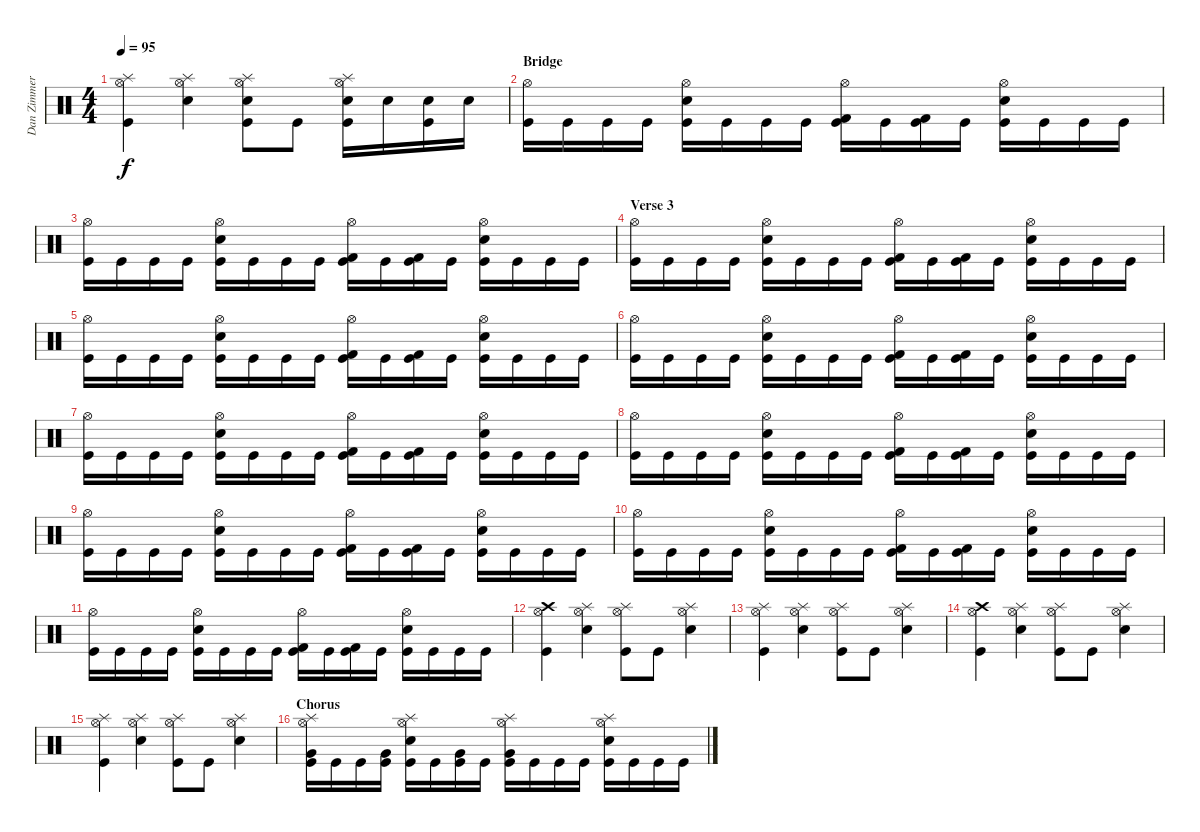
\track ("Dan Zimmermann [drums]" "Dan Zimmer") {instrument percussion}
\staff {score}
\articulation defaults
\ts (4 4)
\tempo 95
\clef neutral
\ks c
("Hi-Hat (open)" "Splash (hit)" "Kick (hit)").4{dy f} ("Hi-Hat (open)" "Splash (hit)" "Snare (hit) 2").4 ("Hi-Hat (open)" "Splash (hit)" "Snare (hit) 2" "Kick (hit)").8 "Kick (hit)".8 ("Hi-Hat (open)" "Splash (hit)" "Snare (hit) 2" "Kick (hit)").16 "Snare (hit) 2".16 ("Snare (hit) 2" "Kick (hit)").16 "Snare (hit) 2".16 |
\section ("" "Bridge")
("Hi-Hat (open)" "Kick (hit)").16 "Kick (hit)".16 "Kick (hit)".16 "Kick (hit)".16 ("Hi-Hat (open)" "Snare (hit) 2" "Kick (hit)").16 "Kick (hit)".16 "Kick (hit)".16 "Kick (hit)".16 ("Hi-Hat (open)" "Kick (hit) 2" "Kick (hit)").16 "Kick (hit)".16 ("Kick (hit) 2" "Kick (hit)").16 "Kick (hit)".16 ("Hi-Hat (open)" "Snare (hit) 2" "Kick (hit)").16 "Kick (hit)".16 "Kick (hit)".16 "Kick (hit)".16 |
("Hi-Hat (open)" "Kick (hit)").16 "Kick (hit)".16 "Kick (hit)".16 "Kick (hit)".16 ("Hi-Hat (open)" "Snare (hit) 2" "Kick (hit)").16 "Kick (hit)".16 "Kick (hit)".16 "Kick (hit)".16 ("Hi-Hat (open)" "Kick (hit) 2" "Kick (hit)").16 "Kick (hit)".16 ("Kick (hit) 2" "Kick (hit)").16 "Kick (hit)".16 ("Hi-Hat (open)" "Snare (hit) 2" "Kick (hit)").16 "Kick (hit)".16 "Kick (hit)".16 "Kick (hit)".16 |
\section ("" "Verse 3")
("Hi-Hat (open)" "Kick (hit)").16 "Kick (hit)".16 "Kick (hit)".16 "Kick (hit)".16 ("Hi-Hat (open)" "Snare (hit) 2" "Kick (hit)").16 "Kick (hit)".16 "Kick (hit)".16 "Kick (hit)".16 ("Hi-Hat (open)" "Kick (hit) 2" "Kick (hit)").16 "Kick (hit)".16 ("Kick (hit) 2" "Kick (hit)").16 "Kick (hit)".16 ("Hi-Hat (open)" "Snare (hit) 2" "Kick (hit)").16 "Kick (hit)".16 "Kick (hit)".16 "Kick (hit)".16 |
("Hi-Hat (open)" "Kick (hit)").16 "Kick (hit)".16 "Kick (hit)".16 "Kick (hit)".16 ("Hi-Hat (open)" "Snare (hit) 2" "Kick (hit)").16 "Kick (hit)".16 "Kick (hit)".16 "Kick (hit)".16 ("Hi-Hat (open)" "Kick (hit) 2" "Kick (hit)").16 "Kick (hit)".16 ("Kick (hit) 2" "Kick (hit)").16 "Kick (hit)".16 ("Hi-Hat (open)" "Snare (hit) 2" "Kick (hit)").16 "Kick (hit)".16 "Kick (hit)".16 "Kick (hit)".16 |
("Hi-Hat (open)" "Kick (hit)").16 "Kick (hit)".16 "Kick (hit)".16 "Kick (hit)".16 ("Hi-Hat (open)" "Snare (hit) 2" "Kick (hit)").16 "Kick (hit)".16 "Kick (hit)".16 "Kick (hit)".16 ("Hi-Hat (open)" "Kick (hit) 2" "Kick (hit)").16 "Kick (hit)".16 ("Kick (hit) 2" "Kick (hit)").16 "Kick (hit)".16 ("Hi-Hat (open)" "Snare (hit) 2" "Kick (hit)").16 "Kick (hit)".16 "Kick (hit)".16 "Kick (hit)".16 |
("Hi-Hat (open)" "Kick (hit)").16 "Kick (hit)".16 "Kick (hit)".16 "Kick (hit)".16 ("Hi-Hat (open)" "Snare (hit) 2" "Kick (hit)").16 "Kick (hit)".16 "Kick (hit)".16 "Kick (hit)".16 ("Hi-Hat (open)" "Kick (hit) 2" "Kick (hit)").16 "Kick (hit)".16 ("Kick (hit) 2" "Kick (hit)").16 "Kick (hit)".16 ("Hi-Hat (open)" "Snare (hit) 2" "Kick (hit)").16 "Kick (hit)".16 "Kick (hit)".16 "Kick (hit)".16 |
("Hi-Hat (open)" "Kick (hit)").16 "Kick (hit)".16 "Kick (hit)".16 "Kick (hit)".16 ("Hi-Hat (open)" "Snare (hit) 2" "Kick (hit)").16 "Kick (hit)".16 "Kick (hit)".16 "Kick (hit)".16 ("Hi-Hat (open)" "Kick (hit) 2" "Kick (hit)").16 "Kick (hit)".16 ("Kick (hit) 2" "Kick (hit)").16 "Kick (hit)".16 ("Hi-Hat (open)" "Snare (hit) 2" "Kick (hit)").16 "Kick (hit)".16 "Kick (hit)".16 "Kick (hit)".16 |
("Hi-Hat (open)" "Kick (hit)").16 "Kick (hit)".16 "Kick (hit)".16 "Kick (hit)".16 ("Hi-Hat (open)" "Snare (hit) 2" "Kick (hit)").16 "Kick (hit)".16 "Kick (hit)".16 "Kick (hit)".16 ("Hi-Hat (open)" "Kick (hit) 2" "Kick (hit)").16 "Kick (hit)".16 ("Kick (hit) 2" "Kick (hit)").16 "Kick (hit)".16 ("Hi-Hat (open)" "Snare (hit) 2" "Kick (hit)").16 "Kick (hit)".16 "Kick (hit)".16 "Kick (hit)".16 |
("Hi-Hat (open)" "Kick (hit)").16 "Kick (hit)".16 "Kick (hit)".16 "Kick (hit)".16 ("Hi-Hat (open)" "Snare (hit) 2" "Kick (hit)").16 "Kick (hit)".16 "Kick (hit)".16 "Kick (hit)".16 ("Hi-Hat (open)" "Kick (hit) 2" "Kick (hit)").16 "Kick (hit)".16 ("Kick (hit) 2" "Kick (hit)").16 "Kick (hit)".16 ("Hi-Hat (open)" "Snare (hit) 2" "Kick (hit)").16 "Kick (hit)".16 "Kick (hit)".16 "Kick (hit)".16 |
("Hi-Hat (open)" "Kick (hit)").16 "Kick (hit)".16 "Kick (hit)".16 "Kick (hit)".16 ("Hi-Hat (open)" "Snare (hit) 2" "Kick (hit)").16 "Kick (hit)".16 "Kick (hit)".16 "Kick (hit)".16 ("Hi-Hat (open)" "Kick (hit) 2" "Kick (hit)").16 "Kick (hit)".16 ("Kick (hit) 2" "Kick (hit)").16 "Kick (hit)".16 ("Hi-Hat (open)" "Snare (hit) 2" "Kick (hit)").16 "Kick (hit)".16 "Kick (hit)".16 "Kick (hit)".16 |
("Hi-Hat (open)" "Crash high (hit)" "Kick (hit)").4 ("Hi-Hat (open)" "Splash (hit)" "Snare (hit) 2").4 ("Hi-Hat (open)" "Splash (hit)" "Kick (hit)").8 "Kick (hit)".8 ("Hi-Hat (open)" "Splash (hit)" "Snare (hit) 2").4 |
("Hi-Hat (open)" "Splash (hit)" "Kick (hit)").4 ("Hi-Hat (open)" "Splash (hit)" "Snare (hit) 2").4 ("Hi-Hat (open)" "Splash (hit)" "Kick (hit)").8 "Kick (hit)".8 ("Hi-Hat (open)" "Splash (hit)" "Snare (hit) 2").4 |
("Hi-Hat (open)" "Crash high (hit)" "Kick (hit)").4 ("Hi-Hat (open)" "Splash (hit)" "Snare (hit) 2").4 ("Hi-Hat (open)" "Splash (hit)" "Kick (hit)").8 "Kick (hit)".8 ("Hi-Hat (open)" "Splash (hit)" "Snare (hit) 2").4 |
("Hi-Hat (open)" "Splash (hit)" "Kick (hit)").4 ("Hi-Hat (open)" "Splash (hit)" "Snare (hit) 2").4 ("Hi-Hat (open)" "Splash (hit)" "Kick (hit)").8 "Kick (hit)".8 ("Hi-Hat (open)" "Splash (hit)" "Snare (hit) 2").4 |
\section ("" "Chorus")
("Hi-Hat (open)" "Splash (hit)" "Very Low Tom (hit)" "Kick (hit)").16 "Kick (hit)".16 "Kick (hit)".16 ("Very Low Tom (hit)" "Kick (hit)").16 ("Hi-Hat (open)" "Splash (hit)" "Snare (hit) 2" "Kick (hit)").16 "Kick (hit)".16 ("Very Low Tom (hit)" "Kick (hit)").16 "Kick (hit)".16 ("Hi-Hat (open)" "Splash (hit)" "Very Low Tom (hit)" "Kick (hit)").16 "Kick (hit)".16 "Kick (hit)".16 "Kick (hit)".16 ("Hi-Hat (open)" "Splash (hit)" "Snare (hit) 2" "Kick (hit)").16 "Kick (hit)".16 "Kick (hit)".16 "Kick (hit)".16
